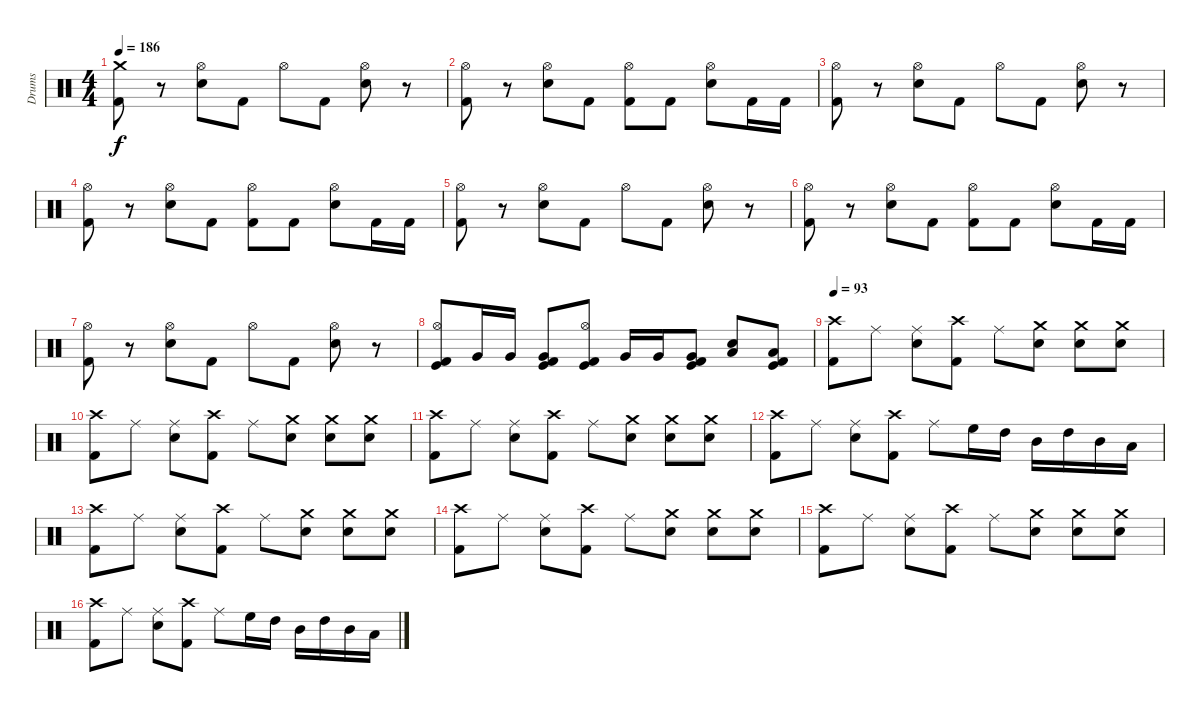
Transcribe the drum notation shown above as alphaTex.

\track ("Drums" "Drums") {instrument percussion}
\staff {score}
\articulation defaults
\ts (4 4)
\tempo 186
\clef neutral
\ks c
("Crash medium (hit)" "Kick (hit) 2").8{dy f} r.8 ("Hi-Hat (open)" "Snare (hit) 2").8 "Kick (hit) 2".8 "Hi-Hat (open)".8 "Kick (hit) 2".8 ("Hi-Hat (open)" "Snare (hit) 2").8 r.8 |
("Hi-Hat (open)" "Kick (hit) 2").8 r.8 ("Hi-Hat (open)" "Snare (hit) 2").8 "Kick (hit) 2".8 ("Hi-Hat (open)" "Kick (hit) 2").8 "Kick (hit) 2".8 ("Hi-Hat (open)" "Snare (hit) 2").8 "Kick (hit) 2".16 "Kick (hit) 2".16 |
("Hi-Hat (open)" "Kick (hit) 2").8 r.8 ("Hi-Hat (open)" "Snare (hit) 2").8 "Kick (hit) 2".8 "Hi-Hat (open)".8 "Kick (hit) 2".8 ("Hi-Hat (open)" "Snare (hit) 2").8 r.8 |
("Hi-Hat (open)" "Kick (hit) 2").8 r.8 ("Hi-Hat (open)" "Snare (hit) 2").8 "Kick (hit) 2".8 ("Hi-Hat (open)" "Kick (hit) 2").8 "Kick (hit) 2".8 ("Hi-Hat (open)" "Snare (hit) 2").8 "Kick (hit) 2".16 "Kick (hit) 2".16 |
("Hi-Hat (open)" "Kick (hit) 2").8 r.8 ("Hi-Hat (open)" "Snare (hit) 2").8 "Kick (hit) 2".8 "Hi-Hat (open)".8 "Kick (hit) 2".8 ("Hi-Hat (open)" "Snare (hit) 2").8 r.8 |
("Hi-Hat (open)" "Kick (hit) 2").8 r.8 ("Hi-Hat (open)" "Snare (hit) 2").8 "Kick (hit) 2".8 ("Hi-Hat (open)" "Kick (hit) 2").8 "Kick (hit) 2".8 ("Hi-Hat (open)" "Snare (hit) 2").8 "Kick (hit) 2".16 "Kick (hit) 2".16 |
("Hi-Hat (open)" "Kick (hit) 2").8 r.8 ("Hi-Hat (open)" "Snare (hit) 2").8 "Kick (hit) 2".8 "Hi-Hat (open)".8 "Kick (hit) 2".8 ("Hi-Hat (open)" "Snare (hit) 2").8 r.8 |
("Hi-Hat (open)" "Kick (hit)" "Kick (hit) 2").8 "Very Low Tom (hit)".16 "Very Low Tom (hit)".16 ("Very Low Tom (hit)" "Kick (hit)" "Kick (hit) 2").8 ("Hi-Hat (open)" "Kick (hit)" "Kick (hit) 2").8 "Very Low Tom (hit)".16 "Very Low Tom (hit)".16 ("Very Low Tom (hit)" "Kick (hit)" "Kick (hit) 2").8 ("Low Tom (hit)" "Snare (hit) 2").8 ("Low Floor Tom (hit)" "Kick (hit)" "Kick (hit) 2").8 |
\tempo 93
("Crash high (hit)" "Kick (hit) 2").8 "Ride (middle)".8 ("Ride (middle)" "Snare (hit) 2").8 ("Crash high (hit)" "Kick (hit) 2").8 "Ride (middle)".8 ("Crash medium (hit)" "Snare (hit) 2").8 ("Crash medium (hit)" "Snare (hit) 2").8 ("Crash medium (hit)" "Snare (hit) 2").8 |
("Crash high (hit)" "Kick (hit) 2").8 "Ride (middle)".8 ("Ride (middle)" "Snare (hit) 2").8 ("Crash high (hit)" "Kick (hit) 2").8 "Ride (middle)".8 ("Crash medium (hit)" "Snare (hit) 2").8 ("Crash medium (hit)" "Snare (hit) 2").8 ("Crash medium (hit)" "Snare (hit) 2").8 |
("Crash high (hit)" "Kick (hit) 2").8 "Ride (middle)".8 ("Ride (middle)" "Snare (hit) 2").8 ("Crash high (hit)" "Kick (hit) 2").8 "Ride (middle)".8 ("Crash medium (hit)" "Snare (hit) 2").8 ("Crash medium (hit)" "Snare (hit) 2").8 ("Crash medium (hit)" "Snare (hit) 2").8 |
("Crash high (hit)" "Kick (hit) 2").8 "Ride (middle)".8 ("Ride (middle)" "Snare (hit) 2").8 ("Crash high (hit)" "Kick (hit) 2").8 "Ride (middle)".8 "High Floor Tom (hit)".16 "High Tom (hit)".16 "Mid Tom (hit)".16 "High Tom (hit)".16 "Mid Tom (hit)".16 "Low Tom (hit)".16 |
("Crash high (hit)" "Kick (hit) 2").8 "Ride (middle)".8 ("Ride (middle)" "Snare (hit) 2").8 ("Crash high (hit)" "Kick (hit) 2").8 "Ride (middle)".8 ("Crash medium (hit)" "Snare (hit) 2").8 ("Crash medium (hit)" "Snare (hit) 2").8 ("Crash medium (hit)" "Snare (hit) 2").8 |
("Crash high (hit)" "Kick (hit) 2").8 "Ride (middle)".8 ("Ride (middle)" "Snare (hit) 2").8 ("Crash high (hit)" "Kick (hit) 2").8 "Ride (middle)".8 ("Crash medium (hit)" "Snare (hit) 2").8 ("Crash medium (hit)" "Snare (hit) 2").8 ("Crash medium (hit)" "Snare (hit) 2").8 |
("Crash high (hit)" "Kick (hit) 2").8 "Ride (middle)".8 ("Ride (middle)" "Snare (hit) 2").8 ("Crash high (hit)" "Kick (hit) 2").8 "Ride (middle)".8 ("Crash medium (hit)" "Snare (hit) 2").8 ("Crash medium (hit)" "Snare (hit) 2").8 ("Crash medium (hit)" "Snare (hit) 2").8 |
("Crash high (hit)" "Kick (hit) 2").8 "Ride (middle)".8 ("Ride (middle)" "Snare (hit) 2").8 ("Crash high (hit)" "Kick (hit) 2").8 "Ride (middle)".8 "High Floor Tom (hit)".16 "High Tom (hit)".16 "Mid Tom (hit)".16 "High Tom (hit)".16 "Mid Tom (hit)".16 "Low Tom (hit)".16
